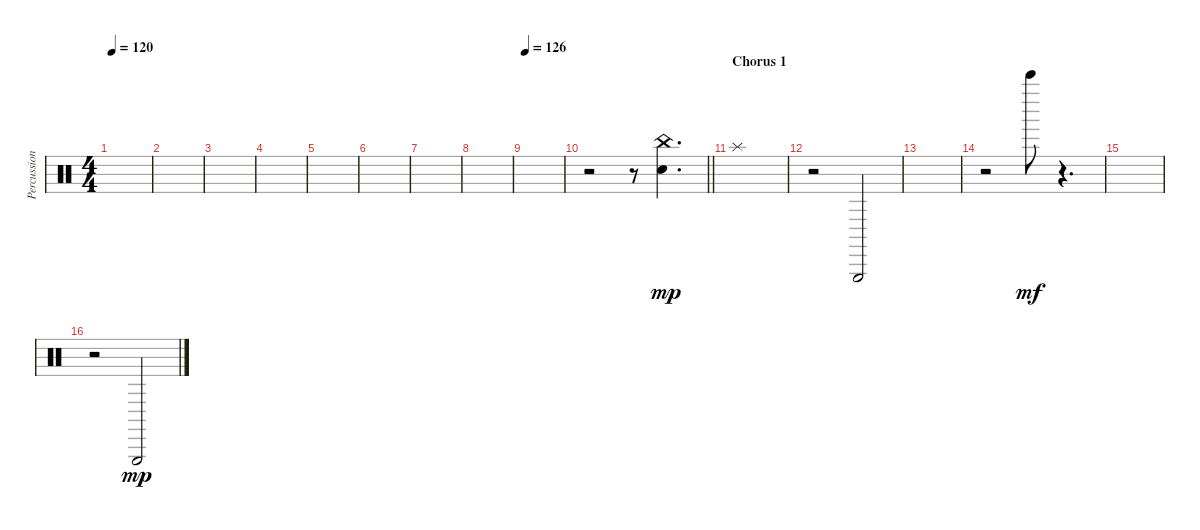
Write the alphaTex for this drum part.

\track ("Percussion" "Percussion") {instrument percussion}
\staff {score}
\articulation defaults
\ts (4 4)
\tempo 120
\clef neutral
\ks c
|
|
|
|
|
|
|
|
\tempo 126
|
\barLineRight lightlight
r.2 r.8 ("China (hit)" "Snare (hit)").4{d dy mp} |
\section ("" "Chorus 1")
"Splash (hit)".1 |
r.2 "Triangle (hit)".2 |
|
r.2 "Bell Tree (hit)".8{dy mf} r.4{d} |
|
r.2 "Triangle (hit)".2{dy mp}
